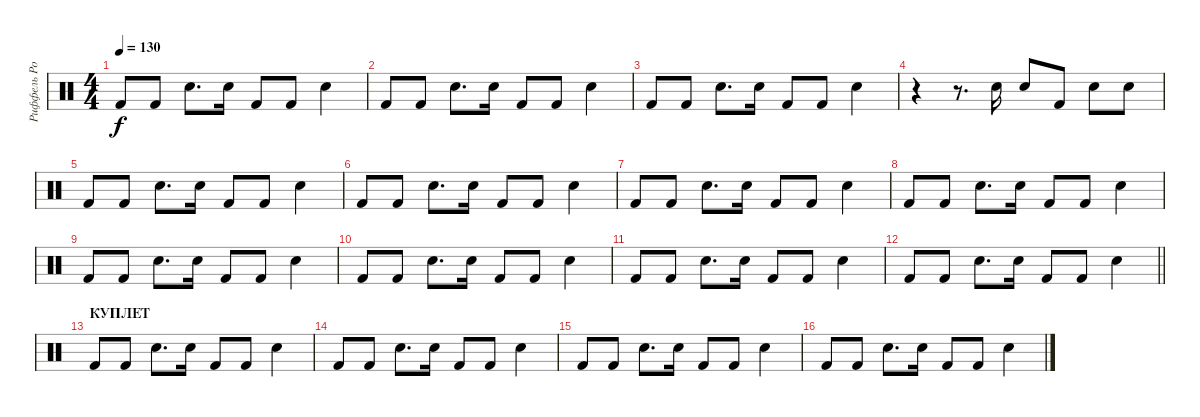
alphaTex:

\track ("Риффель Роман (главные)" "Риффель Ро") {instrument percussion}
\staff {score}
\articulation defaults
\ts (4 4)
\tempo 130
\clef neutral
\ks c "Kick (hit) 2".8{dy f} "Kick (hit) 2".8 "Electric Snare (hit)".8{d} "Electric Snare (hit)".16 "Kick (hit) 2".8 "Kick (hit) 2".8 "Electric Snare (hit)".4
|
"Kick (hit) 2".8 "Kick (hit) 2".8 "Electric Snare (hit)".8{d} "Electric Snare (hit)".16 "Kick (hit) 2".8 "Kick (hit) 2".8 "Electric Snare (hit)".4 |
"Kick (hit) 2".8 "Kick (hit) 2".8 "Electric Snare (hit)".8{d} "Electric Snare (hit)".16 "Kick (hit) 2".8 "Kick (hit) 2".8 "Electric Snare (hit)".4 |
r.4 r.8{d} "Electric Snare (hit)".16 "Electric Snare (hit)".8 "Kick (hit) 2".8 "Electric Snare (hit)".8 "Electric Snare (hit)".8 |
"Kick (hit) 2".8 "Kick (hit) 2".8 "Electric Snare (hit)".8{d} "Electric Snare (hit)".16 "Kick (hit) 2".8 "Kick (hit) 2".8 "Electric Snare (hit)".4 |
"Kick (hit) 2".8 "Kick (hit) 2".8 "Electric Snare (hit)".8{d} "Electric Snare (hit)".16 "Kick (hit) 2".8 "Kick (hit) 2".8 "Electric Snare (hit)".4 |
"Kick (hit) 2".8 "Kick (hit) 2".8 "Electric Snare (hit)".8{d} "Electric Snare (hit)".16 "Kick (hit) 2".8 "Kick (hit) 2".8 "Electric Snare (hit)".4 |
"Kick (hit) 2".8 "Kick (hit) 2".8 "Electric Snare (hit)".8{d} "Electric Snare (hit)".16 "Kick (hit) 2".8 "Kick (hit) 2".8 "Electric Snare (hit)".4 |
"Kick (hit) 2".8 "Kick (hit) 2".8 "Electric Snare (hit)".8{d} "Electric Snare (hit)".16 "Kick (hit) 2".8 "Kick (hit) 2".8 "Electric Snare (hit)".4 |
"Kick (hit) 2".8 "Kick (hit) 2".8 "Electric Snare (hit)".8{d} "Electric Snare (hit)".16 "Kick (hit) 2".8 "Kick (hit) 2".8 "Electric Snare (hit)".4 |
"Kick (hit) 2".8 "Kick (hit) 2".8 "Electric Snare (hit)".8{d} "Electric Snare (hit)".16 "Kick (hit) 2".8 "Kick (hit) 2".8 "Electric Snare (hit)".4 |
\barLineRight lightlight "Kick (hit) 2".8 "Kick (hit) 2".8 "Electric Snare (hit)".8{d} "Electric Snare (hit)".16 "Kick (hit) 2".8 "Kick (hit) 2".8 "Electric Snare (hit)".4
|
\section ("" "КУПЛЕТ")
"Kick (hit) 2".8 "Kick (hit) 2".8 "Electric Snare (hit)".8{d} "Electric Snare (hit)".16 "Kick (hit) 2".8 "Kick (hit) 2".8 "Electric Snare (hit)".4 |
"Kick (hit) 2".8 "Kick (hit) 2".8 "Electric Snare (hit)".8{d} "Electric Snare (hit)".16 "Kick (hit) 2".8 "Kick (hit) 2".8 "Electric Snare (hit)".4 |
"Kick (hit) 2".8 "Kick (hit) 2".8 "Electric Snare (hit)".8{d} "Electric Snare (hit)".16 "Kick (hit) 2".8 "Kick (hit) 2".8 "Electric Snare (hit)".4 |
"Kick (hit) 2".8 "Kick (hit) 2".8 "Electric Snare (hit)".8{d} "Electric Snare (hit)".16 "Kick (hit) 2".8 "Kick (hit) 2".8 "Electric Snare (hit)".4
